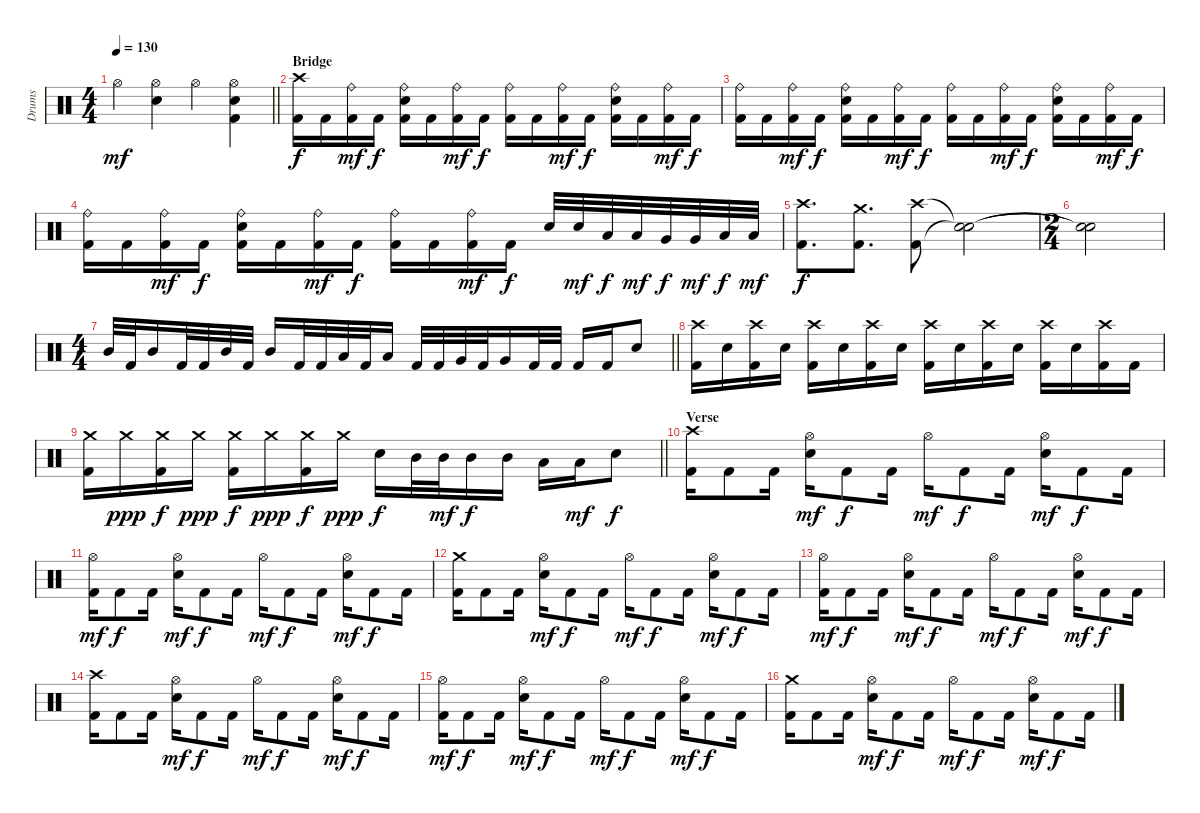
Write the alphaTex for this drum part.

\track ("Drums" "Drums") {instrument percussion}
\staff {score}
\articulation defaults
\ts (4 4)
\tempo 130
\clef neutral
\barLineRight lightlight
\ks c "Hi-Hat (open)".4{dy mf}
("Hi-Hat (open)" "Electric Snare (hit)").4 "Hi-Hat (open)".4 ("Kick (hit) 2" "Hi-Hat (open)" "Electric Snare (hit)").4 |
\section ("" "Bridge")
("Kick (hit) 2" "Crash high (hit)").16{dy f} "Kick (hit) 2".16 ("Kick (hit) 2" "Ride (bell)").16{dy mf} "Kick (hit) 2".16{dy f} ("Kick (hit) 2" "Ride (bell)" "Electric Snare (hit)").16 "Kick (hit) 2".16 ("Kick (hit) 2" "Ride (bell)").16{dy mf} "Kick (hit) 2".16{dy f} ("Kick (hit) 2" "Ride (bell)").16 "Kick (hit) 2".16 ("Kick (hit) 2" "Ride (bell)").16{dy mf} "Kick (hit) 2".16{dy f} ("Kick (hit) 2" "Ride (bell)" "Electric Snare (hit)").16 "Kick (hit) 2".16 ("Kick (hit) 2" "Ride (bell)").16{dy mf} "Kick (hit) 2".16{dy f} |
("Kick (hit) 2" "Ride (bell)").16 "Kick (hit) 2".16 ("Kick (hit) 2" "Ride (bell)").16{dy mf} "Kick (hit) 2".16{dy f} ("Kick (hit) 2" "Ride (bell)" "Electric Snare (hit)").16 "Kick (hit) 2".16 ("Kick (hit) 2" "Ride (bell)").16{dy mf} "Kick (hit) 2".16{dy f} ("Kick (hit) 2" "Ride (bell)").16 "Kick (hit) 2".16 ("Kick (hit) 2" "Ride (bell)").16{dy mf} "Kick (hit) 2".16{dy f} ("Kick (hit) 2" "Ride (bell)" "Electric Snare (hit)").16 "Kick (hit) 2".16 ("Kick (hit) 2" "Ride (bell)").16{dy mf} "Kick (hit) 2".16{dy f} |
("Kick (hit) 2" "Ride (bell)").16 "Kick (hit) 2".16 ("Kick (hit) 2" "Ride (bell)").16{dy mf} "Kick (hit) 2".16{dy f} ("Kick (hit) 2" "Ride (bell)" "Electric Snare (hit)").16 "Kick (hit) 2".16 ("Kick (hit) 2" "Ride (bell)").16{dy mf} "Kick (hit) 2".16{dy f} ("Kick (hit) 2" "Ride (bell)").16 "Kick (hit) 2".16 ("Kick (hit) 2" "Ride (bell)").16{dy mf} "Kick (hit) 2".16{dy f} "Electric Snare (hit)".32 "Electric Snare (hit)".32{dy mf} "Low Tom (hit)".32{dy f} "Low Tom (hit)".32{dy mf} "Very Low Tom (hit)".32{dy f} "Very Low Tom (hit)".32{dy mf} "Low Floor Tom (hit)".32{dy f} "Low Floor Tom (hit)".32{dy mf} |
("Kick (hit) 2" "Crash high (hit)").8{d dy f} ("Kick (hit) 2" "Crash medium (hit)").8{d} ("Kick (hit) 2" "Crash high (hit)").8 ("Snare (hit)"{t} "Snare (hit)"{t}).2 |
\ts (2 4)
("Snare (hit)"{t} "Snare (hit)"{t}).2 |
\ts (4 4)
\barLineRight lightlight "Mid Tom (hit)".32 "Kick (hit) 2".32 "Mid Tom (hit)".16 "Kick (hit) 2".32 "Kick (hit) 2".32 "Mid Tom (hit)".32 "Kick (hit) 2".32 "Mid Tom (hit)".16 "Kick (hit) 2".32 "Kick (hit) 2".32 "Low Tom (hit)".32 "Kick (hit) 2".32 "Low Tom (hit)".16 "Kick (hit) 2".32 "Kick (hit) 2".32 "Very Low Tom (hit)".32 "Kick (hit) 2".32 "Very Low Tom (hit)".16 "Kick (hit) 2".32 "Kick (hit) 2".32 "Kick (hit) 2".16 "Kick (hit) 2".16 "Electric Snare (hit)".8
|
("Kick (hit) 2" "Crash high (hit)").16 "Electric Snare (hit)".16 ("Kick (hit) 2" "Crash high (hit)").16 "Electric Snare (hit)".16 ("Kick (hit) 2" "Crash high (hit)").16 "Electric Snare (hit)".16 ("Kick (hit) 2" "Crash high (hit)").16 "Electric Snare (hit)".16 ("Kick (hit) 2" "Crash high (hit)").16 "Electric Snare (hit)".16 ("Kick (hit) 2" "Crash high (hit)").16 "Electric Snare (hit)".16 ("Kick (hit) 2" "Crash high (hit)").16 "Electric Snare (hit)".16 ("Kick (hit) 2" "Crash high (hit)").16 "Kick (hit) 2".16 |
\barLineRight lightlight
("Kick (hit) 2" "Crash medium (hit)").16 "Crash medium (hit)".16{dy ppp} ("Kick (hit) 2" "Crash medium (hit)").16{dy f} "Crash medium (hit)".16{dy ppp} ("Kick (hit) 2" "Crash medium (hit)").16{dy f} "Crash medium (hit)".16{dy ppp} ("Kick (hit) 2" "Crash medium (hit)").16{dy f} "Crash medium (hit)".16{dy ppp} "Electric Snare (hit)".16{dy f} "Mid Tom (hit)".32 "Mid Tom (hit)".32{dy mf} "Mid Tom (hit)".16{dy f} "Mid Tom (hit)".16 "Low Tom (hit)".16 "Low Tom (hit)".16{dy mf} "Electric Snare (hit)".8{dy f} |
\section ("" "Verse")
("Kick (hit) 2" "Crash high (hit)").16 "Kick (hit) 2".8 "Kick (hit) 2".16 ("Hi-Hat (open)" "Electric Snare (hit)").16{dy mf} "Kick (hit) 2".8{dy f} "Kick (hit) 2".16 "Hi-Hat (open)".16{dy mf} "Kick (hit) 2".8{dy f} "Kick (hit) 2".16 ("Hi-Hat (open)" "Electric Snare (hit)").16{dy mf} "Kick (hit) 2".8{dy f} "Kick (hit) 2".16 |
("Kick (hit) 2" "Hi-Hat (open)").16{dy mf} "Kick (hit) 2".8{dy f} "Kick (hit) 2".16 ("Hi-Hat (open)" "Electric Snare (hit)").16{dy mf} "Kick (hit) 2".8{dy f} "Kick (hit) 2".16 "Hi-Hat (open)".16{dy mf} "Kick (hit) 2".8{dy f} "Kick (hit) 2".16 ("Hi-Hat (open)" "Electric Snare (hit)").16{dy mf} "Kick (hit) 2".8{dy f} "Kick (hit) 2".16 |
("Kick (hit) 2" "Crash medium (hit)").16 "Kick (hit) 2".8 "Kick (hit) 2".16 ("Hi-Hat (open)" "Electric Snare (hit)").16{dy mf} "Kick (hit) 2".8{dy f} "Kick (hit) 2".16 "Hi-Hat (open)".16{dy mf} "Kick (hit) 2".8{dy f} "Kick (hit) 2".16 ("Hi-Hat (open)" "Electric Snare (hit)").16{dy mf} "Kick (hit) 2".8{dy f} "Kick (hit) 2".16 |
("Kick (hit) 2" "Hi-Hat (open)").16{dy mf} "Kick (hit) 2".8{dy f} "Kick (hit) 2".16 ("Hi-Hat (open)" "Electric Snare (hit)").16{dy mf} "Kick (hit) 2".8{dy f} "Kick (hit) 2".16 "Hi-Hat (open)".16{dy mf} "Kick (hit) 2".8{dy f} "Kick (hit) 2".16 ("Hi-Hat (open)" "Electric Snare (hit)").16{dy mf} "Kick (hit) 2".8{dy f} "Kick (hit) 2".16 |
("Kick (hit) 2" "Crash high (hit)").16 "Kick (hit) 2".8 "Kick (hit) 2".16 ("Hi-Hat (open)" "Electric Snare (hit)").16{dy mf} "Kick (hit) 2".8{dy f} "Kick (hit) 2".16 "Hi-Hat (open)".16{dy mf} "Kick (hit) 2".8{dy f} "Kick (hit) 2".16 ("Hi-Hat (open)" "Electric Snare (hit)").16{dy mf} "Kick (hit) 2".8{dy f} "Kick (hit) 2".16 |
("Kick (hit) 2" "Hi-Hat (open)").16{dy mf} "Kick (hit) 2".8{dy f} "Kick (hit) 2".16 ("Hi-Hat (open)" "Electric Snare (hit)").16{dy mf} "Kick (hit) 2".8{dy f} "Kick (hit) 2".16 "Hi-Hat (open)".16{dy mf} "Kick (hit) 2".8{dy f} "Kick (hit) 2".16 ("Hi-Hat (open)" "Electric Snare (hit)").16{dy mf} "Kick (hit) 2".8{dy f} "Kick (hit) 2".16 |
("Kick (hit) 2" "Crash medium (hit)").16 "Kick (hit) 2".8 "Kick (hit) 2".16 ("Hi-Hat (open)" "Electric Snare (hit)").16{dy mf} "Kick (hit) 2".8{dy f} "Kick (hit) 2".16 "Hi-Hat (open)".16{dy mf} "Kick (hit) 2".8{dy f} "Kick (hit) 2".16 ("Hi-Hat (open)" "Electric Snare (hit)").16{dy mf} "Kick (hit) 2".8{dy f} "Kick (hit) 2".16
